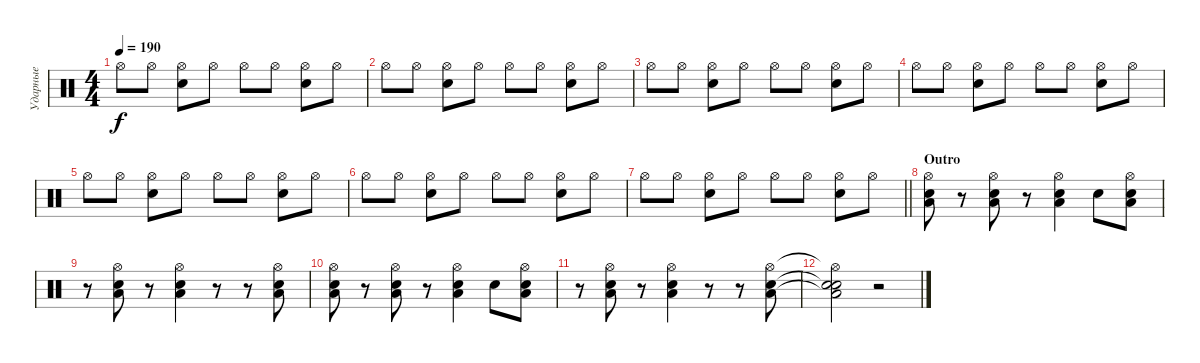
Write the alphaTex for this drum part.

\track ("Ударные" "Ударные") {instrument percussion}
\staff {score}
\articulation defaults
\ts (4 4)
\tempo 190
\clef neutral
\ks c "Hi-Hat (open)".8{dy f} "Hi-Hat (open)".8
("Hi-Hat (open)" "Electric Snare (hit)").8 "Hi-Hat (open)".8 "Hi-Hat (open)".8 "Hi-Hat (open)".8 ("Hi-Hat (open)" "Electric Snare (hit)").8 "Hi-Hat (open)".8 |
"Hi-Hat (open)".8 "Hi-Hat (open)".8 ("Hi-Hat (open)" "Electric Snare (hit)").8 "Hi-Hat (open)".8 "Hi-Hat (open)".8 "Hi-Hat (open)".8 ("Hi-Hat (open)" "Electric Snare (hit)").8 "Hi-Hat (open)".8 |
"Hi-Hat (open)".8 "Hi-Hat (open)".8 ("Hi-Hat (open)" "Electric Snare (hit)").8 "Hi-Hat (open)".8 "Hi-Hat (open)".8 "Hi-Hat (open)".8 ("Hi-Hat (open)" "Electric Snare (hit)").8 "Hi-Hat (open)".8 |
"Hi-Hat (open)".8 "Hi-Hat (open)".8 ("Hi-Hat (open)" "Electric Snare (hit)").8 "Hi-Hat (open)".8 "Hi-Hat (open)".8 "Hi-Hat (open)".8 ("Hi-Hat (open)" "Electric Snare (hit)").8 "Hi-Hat (open)".8 |
"Hi-Hat (open)".8 "Hi-Hat (open)".8 ("Hi-Hat (open)" "Electric Snare (hit)").8 "Hi-Hat (open)".8 "Hi-Hat (open)".8 "Hi-Hat (open)".8 ("Hi-Hat (open)" "Electric Snare (hit)").8 "Hi-Hat (open)".8 |
"Hi-Hat (open)".8 "Hi-Hat (open)".8 ("Hi-Hat (open)" "Electric Snare (hit)").8 "Hi-Hat (open)".8 "Hi-Hat (open)".8 "Hi-Hat (open)".8 ("Hi-Hat (open)" "Electric Snare (hit)").8 "Hi-Hat (open)".8 |
\barLineRight lightlight "Hi-Hat (open)".8 "Hi-Hat (open)".8
("Hi-Hat (open)" "Electric Snare (hit)").8 "Hi-Hat (open)".8 "Hi-Hat (open)".8 "Hi-Hat (open)".8 ("Hi-Hat (open)" "Electric Snare (hit)").8 "Hi-Hat (open)".8 |
\section ("" "Outro")
("Low Floor Tom (hit)" "Hi-Hat (open)" "Snare (hit) 2").8 r.8 ("Low Floor Tom (hit)" "Hi-Hat (open)" "Snare (hit) 2").8 r.8 ("Low Floor Tom (hit)" "Hi-Hat (open)" "Snare (hit) 2").4 "Snare (hit)".8 ("Low Floor Tom (hit)" "Hi-Hat (open)" "Snare (hit) 2").8 |
r.8 ("Low Floor Tom (hit)" "Hi-Hat (open)" "Snare (hit) 2").8 r.8 ("Low Floor Tom (hit)" "Hi-Hat (open)" "Snare (hit) 2").4 r.8 r.8 ("Low Floor Tom (hit)" "Hi-Hat (open)" "Snare (hit) 2").8 |
("Low Floor Tom (hit)" "Hi-Hat (open)" "Snare (hit) 2").8 r.8 ("Low Floor Tom (hit)" "Hi-Hat (open)" "Snare (hit) 2").8 r.8 ("Low Floor Tom (hit)" "Hi-Hat (open)" "Snare (hit) 2").4 "Snare (hit)".8 ("Low Floor Tom (hit)" "Hi-Hat (open)" "Snare (hit) 2").8 |
r.8 ("Low Floor Tom (hit)" "Hi-Hat (open)" "Snare (hit) 2").8 r.8 ("Low Floor Tom (hit)" "Hi-Hat (open)" "Snare (hit) 2").4 r.8 r.8 ("Low Floor Tom (hit)" "Hi-Hat (open)" "Snare (hit) 2").8 |
("Low Floor Tom (hit)"{t} "Hi-Hat (open)"{t} "Snare (hit) 2"{t} "Snare (hit)").2 r.2
